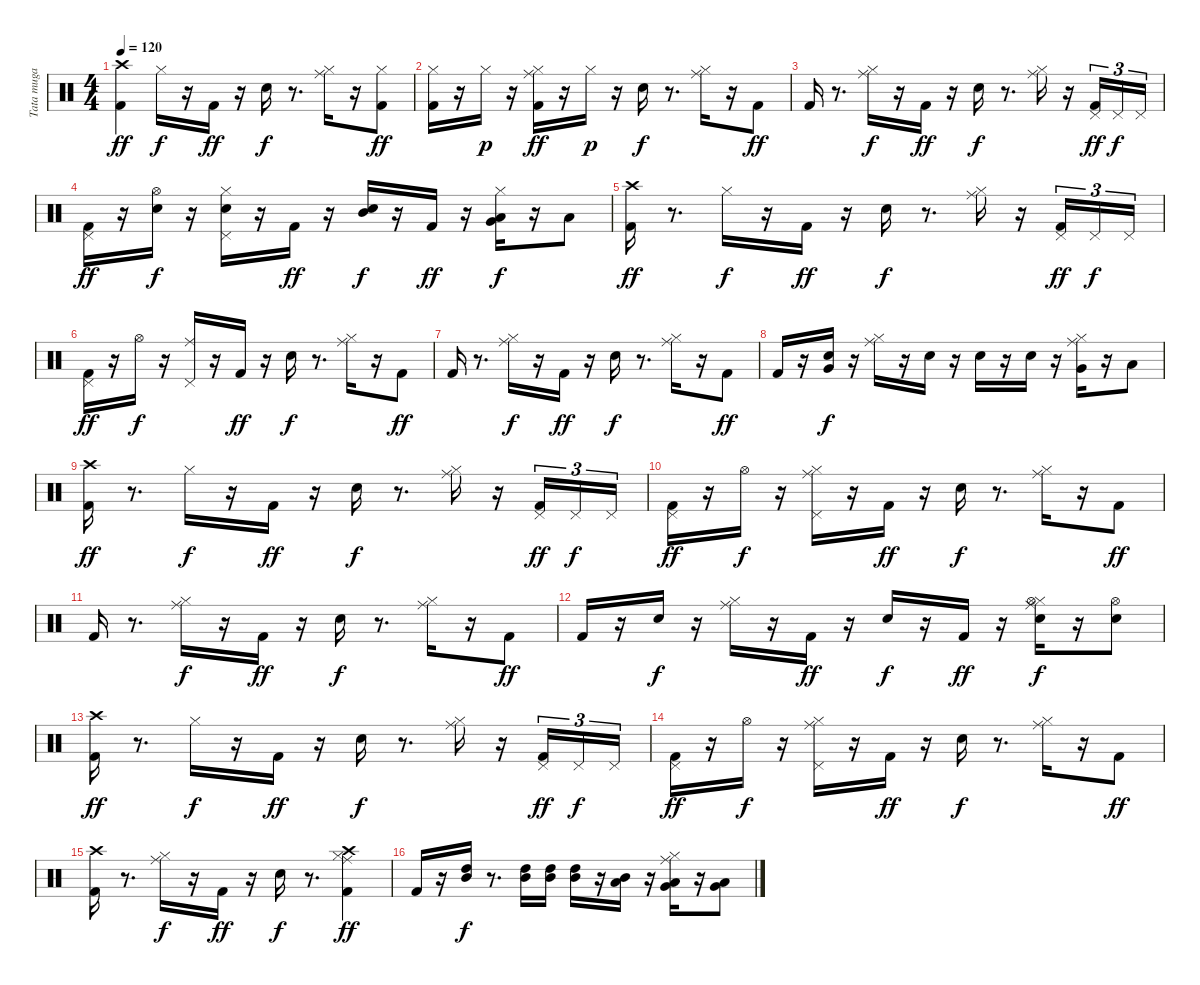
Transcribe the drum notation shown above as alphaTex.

\track ("Tata muga" "Tata muga") {instrument percussion}
\staff {score}
\articulation defaults
\ts (4 4)
\tempo 120
\clef neutral
\ks c
("Crash high (hit)" "Kick (hit) 2").4{dy ff} "Hi-Hat (closed)".16{dy f} r.16 "Kick (hit) 2".16{dy ff} r.16 "Electric Snare (hit)".16{dy f} r.8{d} ("Hi-Hat (closed)" "Ride (middle)").16 r.16 ("Hi-Hat (closed)" "Kick (hit) 2").8{dy ff} |
("Hi-Hat (closed)" "Kick (hit) 2").16 r.16 "Hi-Hat (closed)".16{dy p} r.16 ("Hi-Hat (closed)" "Ride (middle)" "Kick (hit) 2").16{dy ff} r.16 "Hi-Hat (closed)".16{dy p} r.16 "Electric Snare (hit)".16{dy f} r.8{d} ("Hi-Hat (closed)" "Ride (middle)").16 r.16 "Kick (hit) 2".8{dy ff} |
"Kick (hit) 2".16 r.8{d} ("Hi-Hat (closed)" "Ride (middle)").16{dy f} r.16 "Kick (hit) 2".16{dy ff} r.16 "Electric Snare (hit)".16{dy f} r.8{d} ("Hi-Hat (closed)" "Ride (middle)").16 r.16 ("Pedal Hi-Hat (hit)" "Kick (hit) 2").16{tu (3 2) dy ff} "Pedal Hi-Hat (hit)".16{tu (3 2) dy f} "Pedal Hi-Hat (hit)".16{tu (3 2)} |
("Pedal Hi-Hat (hit)" "Kick (hit) 2").16{dy ff} r.16 ("Electric Snare (hit)" "Hi-Hat (open)").16{dy f} r.16 ("Hi-Hat (closed)" "Pedal Hi-Hat (hit)" "Electric Snare (hit)").16 r.16 "Kick (hit) 2".16{dy ff} r.16 ("Mid Tom (hit)" "Electric Snare (hit)").16{dy f} r.16 "Kick (hit) 2".16{dy ff} r.16 ("Hi-Hat (closed)" "Low Tom (hit)" "Very Low Tom (hit)").16{dy f} r.16 "Low Floor Tom (hit)".8 |
("Crash high (hit)" "Kick (hit) 2").16{dy ff} r.8{d} "Hi-Hat (closed)".16{dy f} r.16 "Kick (hit) 2".16{dy ff} r.16 "Electric Snare (hit)".16{dy f} r.8{d} ("Hi-Hat (closed)" "Ride (middle)").16 r.16 ("Pedal Hi-Hat (hit)" "Kick (hit) 2").16{tu (3 2) dy ff} "Pedal Hi-Hat (hit)".16{tu (3 2) dy f} "Pedal Hi-Hat (hit)".16{tu (3 2)} |
("Pedal Hi-Hat (hit)" "Kick (hit) 2").16{dy ff} r.16 "Hi-Hat (open)".16{dy f} r.16 ("Pedal Hi-Hat (hit)" "Ride (middle)").16 r.16 "Kick (hit) 2".16{dy ff} r.16 "Electric Snare (hit)".16{dy f} r.8{d} ("Hi-Hat (closed)" "Ride (middle)").16 r.16 "Kick (hit) 2".8{dy ff} |
"Kick (hit) 2".16 r.8{d} ("Hi-Hat (closed)" "Ride (middle)").16{dy f} r.16 "Kick (hit) 2".16{dy ff} r.16 "Electric Snare (hit)".16{dy f} r.8{d} ("Hi-Hat (closed)" "Ride (middle)").16 r.16 "Kick (hit) 2".8{dy ff} |
"Kick (hit) 2".16 r.16 ("Very Low Tom (hit)" "Electric Snare (hit)").16{dy f} r.16 ("Hi-Hat (closed)" "Ride (middle)").16 r.16 "Electric Snare (hit)".16 r.16 "Electric Snare (hit)".16 r.16 "Electric Snare (hit)".16 r.16 ("Hi-Hat (closed)" "Ride (middle)" "Very Low Tom (hit)").16 r.16 "Low Floor Tom (hit)".8 |
("Crash high (hit)" "Kick (hit) 2").16{dy ff} r.8{d} "Hi-Hat (closed)".16{dy f} r.16 "Kick (hit) 2".16{dy ff} r.16 "Electric Snare (hit)".16{dy f} r.8{d} ("Hi-Hat (closed)" "Ride (middle)").16 r.16 ("Pedal Hi-Hat (hit)" "Kick (hit) 2").16{tu (3 2) dy ff} "Pedal Hi-Hat (hit)".16{tu (3 2) dy f} "Pedal Hi-Hat (hit)".16{tu (3 2)} |
("Pedal Hi-Hat (hit)" "Kick (hit) 2").16{dy ff} r.16 "Hi-Hat (open)".16{dy f} r.16 ("Pedal Hi-Hat (hit)" "Hi-Hat (closed)" "Ride (middle)").16 r.16 "Kick (hit) 2".16{dy ff} r.16 "Electric Snare (hit)".16{dy f} r.8{d} ("Hi-Hat (closed)" "Ride (middle)").16 r.16 "Kick (hit) 2".8{dy ff} |
"Kick (hit) 2".16 r.8{d} ("Hi-Hat (closed)" "Ride (middle)").16{dy f} r.16 "Kick (hit) 2".16{dy ff} r.16 "Electric Snare (hit)".16{dy f} r.8{d} ("Hi-Hat (closed)" "Ride (middle)").16 r.16 "Kick (hit) 2".8{dy ff} |
"Kick (hit) 2".16 r.16 "Electric Snare (hit)".16{dy f} r.16 ("Hi-Hat (closed)" "Ride (middle)").16 r.16 "Kick (hit) 2".16{dy ff} r.16 "Electric Snare (hit)".16{dy f} r.16 "Kick (hit) 2".16{dy ff} r.16 ("Hi-Hat (closed)" "Hi-Hat (open)" "Electric Snare (hit)" "Ride (middle)").16{dy f} r.16 ("Hi-Hat (open)" "Electric Snare (hit)").8 |
("Crash high (hit)" "Kick (hit) 2").16{dy ff} r.8{d} "Hi-Hat (closed)".16{dy f} r.16 "Kick (hit) 2".16{dy ff} r.16 "Electric Snare (hit)".16{dy f} r.8{d} ("Hi-Hat (closed)" "Ride (middle)").16 r.16 ("Pedal Hi-Hat (hit)" "Kick (hit) 2").16{tu (3 2) dy ff} "Pedal Hi-Hat (hit)".16{tu (3 2) dy f} "Pedal Hi-Hat (hit)".16{tu (3 2)} |
("Pedal Hi-Hat (hit)" "Kick (hit) 2").16{dy ff} r.16 "Hi-Hat (open)".16{dy f} r.16 ("Pedal Hi-Hat (hit)" "Hi-Hat (closed)" "Ride (middle)").16 r.16 "Kick (hit) 2".16{dy ff} r.16 "Electric Snare (hit)".16{dy f} r.8{d} ("Hi-Hat (closed)" "Ride (middle)").16 r.16 "Kick (hit) 2".8{dy ff} |
("Crash high (hit)" "Kick (hit) 2").16 r.8{d} ("Hi-Hat (closed)" "Ride (middle)").16{dy f} r.16 "Kick (hit) 2".16{dy ff} r.16 "Electric Snare (hit)".16{dy f} r.8{d} ("Hi-Hat (closed)" "Crash high (hit)" "Ride (middle)" "Kick (hit) 2").4{dy ff} |
"Kick (hit) 2".16 r.16 ("High Tom (hit)" "Mid Tom (hit)").16{dy f} r.8{d} ("High Tom (hit)" "Mid Tom (hit)").16 ("High Tom (hit)" "Mid Tom (hit)").16 ("High Tom (hit)" "Mid Tom (hit)").16 r.16 ("Mid Tom (hit)" "Low Tom (hit)").16 r.16 ("Hi-Hat (closed)" "Ride (middle)" "Low Tom (hit)" "Very Low Tom (hit)").16 r.16 ("Very Low Tom (hit)" "Low Floor Tom (hit)").8
